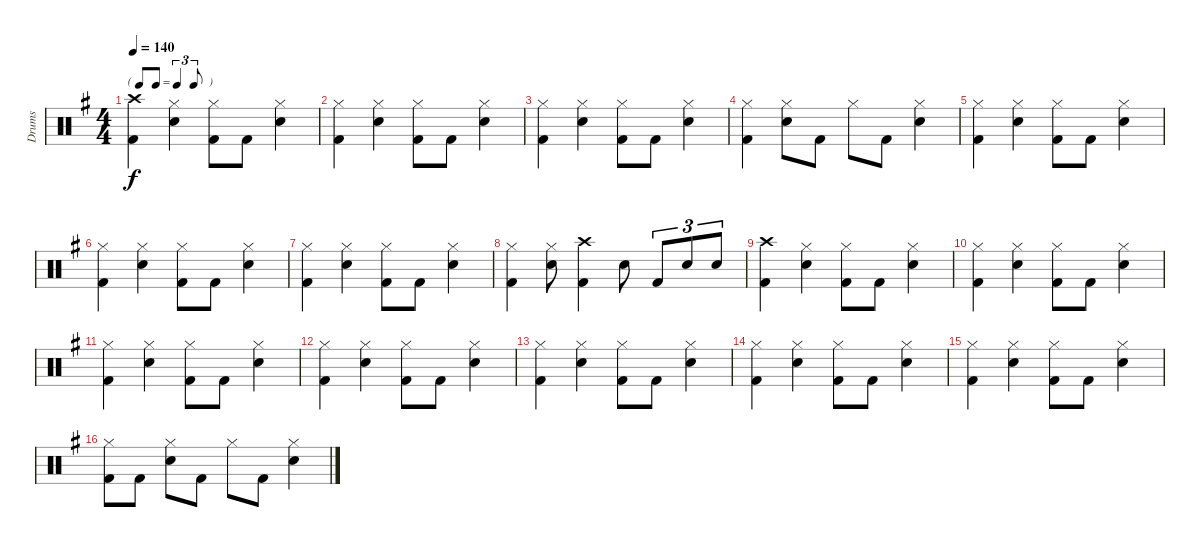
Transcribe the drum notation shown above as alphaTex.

\track ("Drums" "Drums") {instrument percussion}
\staff {score}
\articulation defaults
\ts (4 4)
\tf triplet8th
\tempo 140
\clef neutral
\ks eminor
("Kick (hit) 2" "Crash high (hit)").4{dy f} ("Snare (hit) 2" "Hi-Hat (closed)").4 ("Kick (hit) 2" "Hi-Hat (closed)").8 "Kick (hit) 2".8 ("Snare (hit) 2" "Hi-Hat (closed)").4 |
("Kick (hit) 2" "Hi-Hat (closed)").4 ("Snare (hit) 2" "Hi-Hat (closed)").4 ("Kick (hit) 2" "Hi-Hat (closed)").8 "Kick (hit) 2".8 ("Snare (hit) 2" "Hi-Hat (closed)").4 |
("Kick (hit) 2" "Hi-Hat (closed)").4 ("Snare (hit) 2" "Hi-Hat (closed)").4 ("Kick (hit) 2" "Hi-Hat (closed)").8 "Kick (hit) 2".8 ("Snare (hit) 2" "Hi-Hat (closed)").4 |
("Kick (hit) 2" "Hi-Hat (closed)").4 ("Snare (hit) 2" "Hi-Hat (closed)").8 "Kick (hit) 2".8 "Hi-Hat (closed)".8 "Kick (hit) 2".8 ("Snare (hit) 2" "Hi-Hat (closed)").4 |
("Kick (hit) 2" "Hi-Hat (closed)").4 ("Snare (hit) 2" "Hi-Hat (closed)").4 ("Kick (hit) 2" "Hi-Hat (closed)").8 "Kick (hit) 2".8 ("Snare (hit) 2" "Hi-Hat (closed)").4 |
("Kick (hit) 2" "Hi-Hat (closed)").4 ("Snare (hit) 2" "Hi-Hat (closed)").4 ("Kick (hit) 2" "Hi-Hat (closed)").8 "Kick (hit) 2".8 ("Snare (hit) 2" "Hi-Hat (closed)").4 |
("Kick (hit) 2" "Hi-Hat (closed)").4 ("Snare (hit) 2" "Hi-Hat (closed)").4 ("Kick (hit) 2" "Hi-Hat (closed)").8 "Kick (hit) 2".8 ("Snare (hit) 2" "Hi-Hat (closed)").4 |
("Kick (hit) 2" "Hi-Hat (closed)").4 ("Snare (hit) 2" "Hi-Hat (closed)").8 ("Kick (hit) 2" "Crash high (hit)").4 "Snare (hit) 2".8 "Kick (hit) 2".8{tu (3 2)} "Snare (hit) 2".8{tu (3 2)} "Snare (hit) 2".8{tu (3 2)} |
("Kick (hit) 2" "Crash high (hit)").4 ("Snare (hit) 2" "Hi-Hat (closed)").4 ("Kick (hit) 2" "Hi-Hat (closed)").8 "Kick (hit) 2".8 ("Snare (hit) 2" "Hi-Hat (closed)").4 |
("Kick (hit) 2" "Hi-Hat (closed)").4 ("Snare (hit) 2" "Hi-Hat (closed)").4 ("Kick (hit) 2" "Hi-Hat (closed)").8 "Kick (hit) 2".8 ("Snare (hit) 2" "Hi-Hat (closed)").4 |
("Kick (hit) 2" "Hi-Hat (closed)").4 ("Snare (hit) 2" "Hi-Hat (closed)").4 ("Kick (hit) 2" "Hi-Hat (closed)").8 "Kick (hit) 2".8 ("Snare (hit) 2" "Hi-Hat (closed)").4 |
("Kick (hit) 2" "Hi-Hat (closed)").4 ("Snare (hit) 2" "Hi-Hat (closed)").4 ("Kick (hit) 2" "Hi-Hat (closed)").8 "Kick (hit) 2".8 ("Snare (hit) 2" "Hi-Hat (closed)").4 |
("Kick (hit) 2" "Hi-Hat (closed)").4 ("Snare (hit) 2" "Hi-Hat (closed)").4 ("Kick (hit) 2" "Hi-Hat (closed)").8 "Kick (hit) 2".8 ("Snare (hit) 2" "Hi-Hat (closed)").4 |
("Kick (hit) 2" "Hi-Hat (closed)").4 ("Snare (hit) 2" "Hi-Hat (closed)").4 ("Kick (hit) 2" "Hi-Hat (closed)").8 "Kick (hit) 2".8 ("Snare (hit) 2" "Hi-Hat (closed)").4 |
("Kick (hit) 2" "Hi-Hat (closed)").4 ("Snare (hit) 2" "Hi-Hat (closed)").4 ("Kick (hit) 2" "Hi-Hat (closed)").8 "Kick (hit) 2".8 ("Snare (hit) 2" "Hi-Hat (closed)").4 |
("Kick (hit) 2" "Hi-Hat (closed)").8 "Kick (hit) 2".8 ("Snare (hit) 2" "Hi-Hat (closed)").8 "Kick (hit) 2".8 "Hi-Hat (closed)".8 "Kick (hit) 2".8 ("Snare (hit) 2" "Hi-Hat (closed)").4
